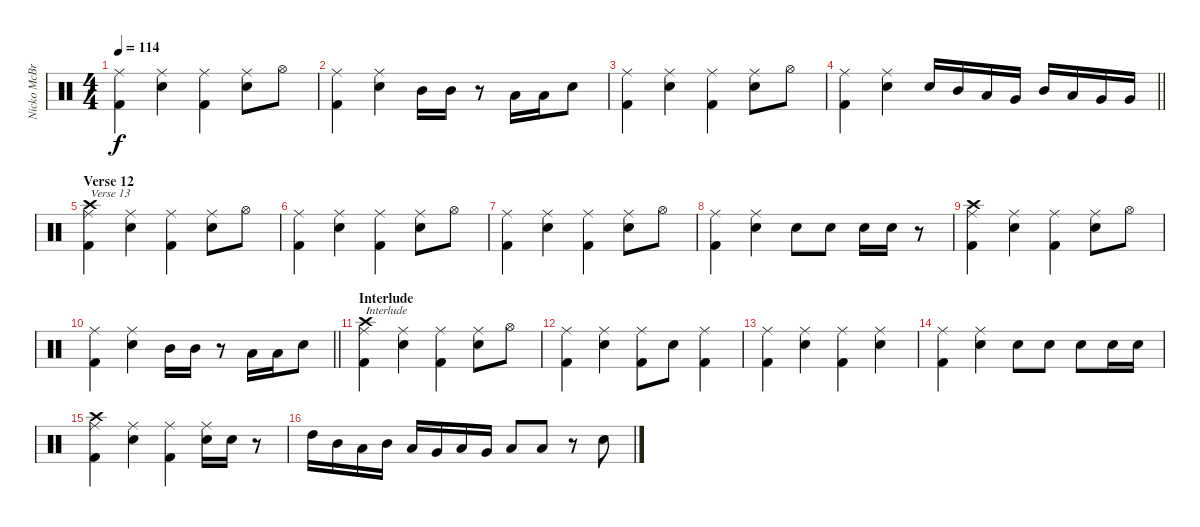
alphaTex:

\track ("Nicko McBrain" "Nicko McBr") {instrument percussion}
\staff {score}
\articulation defaults
\ts (4 4)
\tempo 114
\clef neutral
\ks c
("Ride (middle)" "Kick (hit) 2").4{dy f} ("Ride (middle)" "Snare (hit) 2").4 ("Ride (middle)" "Kick (hit) 2").4 ("Ride (middle)" "Snare (hit) 2").8 "Hi-Hat (open)".8 |
("Ride (middle)" "Kick (hit) 2").4 ("Ride (middle)" "Snare (hit) 2").4 "Mid Tom (hit)".16 "Mid Tom (hit)".16 r.8 "Low Tom (hit)".16 "Low Tom (hit)".16 "Snare (hit) 2".8 |
("Ride (middle)" "Kick (hit) 2").4 ("Ride (middle)" "Snare (hit) 2").4 ("Ride (middle)" "Kick (hit) 2").4 ("Ride (middle)" "Snare (hit) 2").8 "Hi-Hat (open)".8 |
\barLineRight lightlight
("Ride (middle)" "Kick (hit) 2").4 ("Ride (middle)" "Snare (hit) 2").4 "Snare (hit) 2".16 "Mid Tom (hit)".16 "Low Tom (hit)".16 "Very Low Tom (hit)".16 "Mid Tom (hit)".16 "Low Tom (hit)".16 "Very Low Tom (hit)".16 "Very Low Tom (hit)".16 |
\section ("" "Verse 12")
("Ride (middle)" "Kick (hit) 2" "Crash high (hit)").4{txt "Verse 13"} ("Ride (middle)" "Snare (hit) 2").4 ("Ride (middle)" "Kick (hit) 2").4 ("Ride (middle)" "Snare (hit) 2").8 "Hi-Hat (open)".8 |
("Ride (middle)" "Kick (hit) 2").4 ("Ride (middle)" "Snare (hit) 2").4 ("Ride (middle)" "Kick (hit) 2").4 ("Ride (middle)" "Snare (hit) 2").8 "Hi-Hat (open)".8 |
("Ride (middle)" "Kick (hit) 2").4 ("Ride (middle)" "Snare (hit) 2").4 ("Ride (middle)" "Kick (hit) 2").4 ("Ride (middle)" "Snare (hit) 2").8 "Hi-Hat (open)".8 |
("Ride (middle)" "Kick (hit) 2").4 ("Ride (middle)" "Snare (hit) 2").4 "Snare (hit) 2".8 "Snare (hit) 2".8 "Snare (hit) 2".16 "Snare (hit) 2".16 r.8 |
("Ride (middle)" "Kick (hit) 2" "Crash high (hit)").4 ("Ride (middle)" "Snare (hit) 2").4 ("Ride (middle)" "Kick (hit) 2").4 ("Ride (middle)" "Snare (hit) 2").8 "Hi-Hat (open)".8 |
\barLineRight lightlight
("Ride (middle)" "Kick (hit) 2").4 ("Ride (middle)" "Snare (hit) 2").4 "Mid Tom (hit)".16 "Mid Tom (hit)".16 r.8 "Low Tom (hit)".16 "Low Tom (hit)".16 "Snare (hit) 2".8 |
\section ("" "Interlude")
("Ride (middle)" "Kick (hit) 2" "Crash high (hit)").4{txt "Interlude"} ("Ride (middle)" "Snare (hit) 2").4 ("Ride (middle)" "Kick (hit) 2").4 ("Ride (middle)" "Snare (hit) 2").8 "Hi-Hat (open)".8 |
("Ride (middle)" "Kick (hit) 2").4 ("Ride (middle)" "Snare (hit) 2").4 ("Ride (middle)" "Kick (hit) 2").8 "Snare (hit) 2".8 ("Ride (middle)" "Kick (hit) 2").4 |
("Ride (middle)" "Kick (hit) 2").4 ("Ride (middle)" "Snare (hit) 2").4 ("Ride (middle)" "Kick (hit) 2").4 ("Ride (middle)" "Snare (hit) 2").4 |
("Ride (middle)" "Kick (hit) 2").4 ("Ride (middle)" "Snare (hit) 2").4 "Snare (hit) 2".8 "Snare (hit) 2".8 "Snare (hit) 2".8 "Snare (hit) 2".16 "Snare (hit) 2".16 |
("Ride (middle)" "Kick (hit) 2" "Crash high (hit)").4 ("Ride (middle)" "Snare (hit) 2").4 ("Ride (middle)" "Kick (hit) 2").4 ("Ride (middle)" "Snare (hit) 2").16 "Snare (hit) 2".16 r.8 |
"High Tom (hit)".16 "Mid Tom (hit)".16 "Low Tom (hit)".16 "Mid Tom (hit)".16 "Low Tom (hit)".16 "Very Low Tom (hit)".16 "Low Tom (hit)".16 "Very Low Tom (hit)".16 "Low Floor Tom (hit)".8 "Low Floor Tom (hit)".8 r.8 "Snare (hit) 2".8
